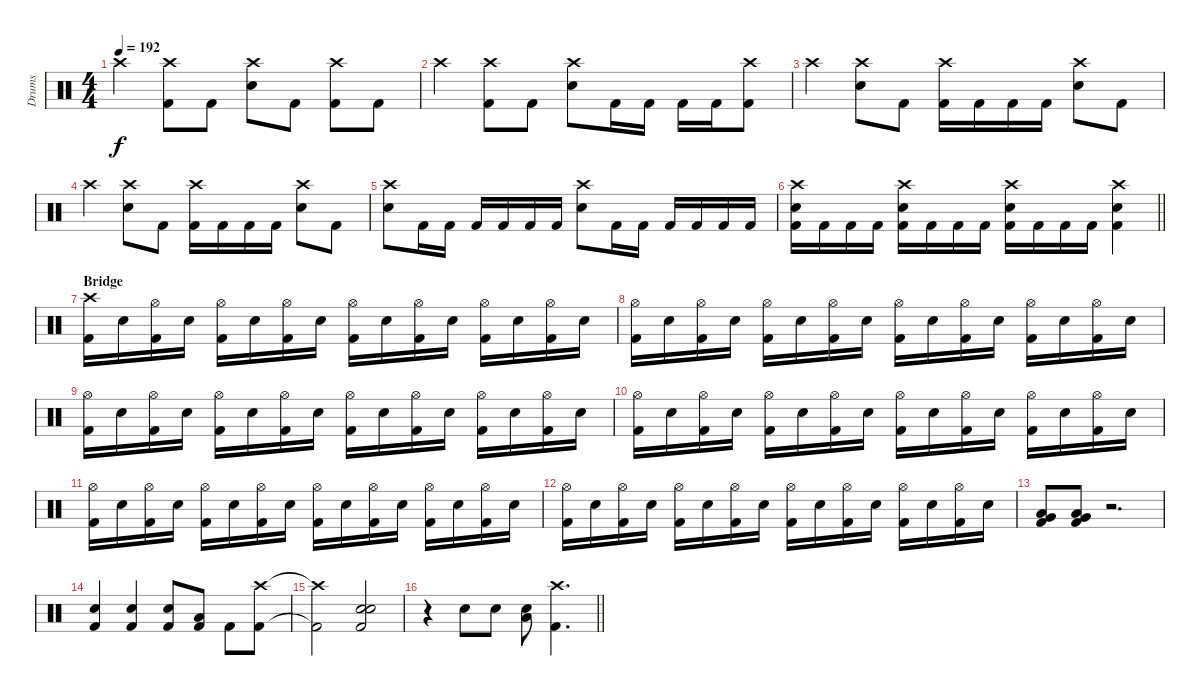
\track ("Drums" "Drums") {instrument percussion}
\staff {score}
\articulation defaults
\ts (4 4)
\tempo 192
\clef neutral
\ks c "Crash high (hit)".4{dy f}
("Crash high (hit)" "Kick (hit) 2").8 "Kick (hit) 2".8 ("Crash high (hit)" "Electric Snare (hit)").8 "Kick (hit) 2".8 ("Crash high (hit)" "Kick (hit) 2").8 "Kick (hit) 2".8 |
"Crash high (hit)".4 ("Crash high (hit)" "Kick (hit) 2").8 "Kick (hit) 2".8 ("Crash high (hit)" "Electric Snare (hit)").8 "Kick (hit) 2".16 "Kick (hit) 2".16 "Kick (hit) 2".16 "Kick (hit) 2".16 ("Crash high (hit)" "Kick (hit) 2").8 |
"Crash high (hit)".4 ("Crash high (hit)" "Electric Snare (hit)").8 "Kick (hit) 2".8 ("Crash high (hit)" "Kick (hit) 2").16 "Kick (hit) 2".16 "Kick (hit) 2".16 "Kick (hit) 2".16 ("Crash high (hit)" "Electric Snare (hit)").8 "Kick (hit) 2".8 |
"Crash high (hit)".4 ("Crash high (hit)" "Electric Snare (hit)").8 "Kick (hit) 2".8 ("Crash high (hit)" "Kick (hit) 2").16 "Kick (hit) 2".16 "Kick (hit) 2".16 "Kick (hit) 2".16 ("Crash high (hit)" "Electric Snare (hit)").8 "Kick (hit) 2".8 |
("Crash high (hit)" "Electric Snare (hit)").8 "Kick (hit) 2".16 "Kick (hit) 2".16 "Kick (hit) 2".16 "Kick (hit) 2".16 "Kick (hit) 2".16 "Kick (hit) 2".16 ("Crash high (hit)" "Electric Snare (hit)").8 "Kick (hit) 2".16 "Kick (hit) 2".16 "Kick (hit) 2".16 "Kick (hit) 2".16 "Kick (hit) 2".16 "Kick (hit) 2".16 |
\barLineRight lightlight
("Crash high (hit)" "Electric Snare (hit)" "Kick (hit) 2").16 "Kick (hit) 2".16 "Kick (hit) 2".16 "Kick (hit) 2".16 ("Crash high (hit)" "Electric Snare (hit)" "Kick (hit) 2").16 "Kick (hit) 2".16 "Kick (hit) 2".16 "Kick (hit) 2".16 ("Crash high (hit)" "Electric Snare (hit)" "Kick (hit) 2").16 "Kick (hit) 2".16 "Kick (hit) 2".16 "Kick (hit) 2".16 ("Crash high (hit)" "Electric Snare (hit)" "Kick (hit) 2").4 |
\section ("" "Bridge")
("Crash high (hit)" "Kick (hit) 2").16 "Electric Snare (hit)".16 ("Hi-Hat (open)" "Kick (hit) 2").16 "Electric Snare (hit)".16 ("Hi-Hat (open)" "Kick (hit) 2").16 "Electric Snare (hit)".16 ("Hi-Hat (open)" "Kick (hit) 2").16 "Electric Snare (hit)".16 ("Hi-Hat (open)" "Kick (hit) 2").16 "Electric Snare (hit)".16 ("Hi-Hat (open)" "Kick (hit) 2").16 "Electric Snare (hit)".16 ("Hi-Hat (open)" "Kick (hit) 2").16 "Electric Snare (hit)".16 ("Hi-Hat (open)" "Kick (hit) 2").16 "Electric Snare (hit)".16 |
("Hi-Hat (open)" "Kick (hit) 2").16 "Electric Snare (hit)".16 ("Hi-Hat (open)" "Kick (hit) 2").16 "Electric Snare (hit)".16 ("Hi-Hat (open)" "Kick (hit) 2").16 "Electric Snare (hit)".16 ("Hi-Hat (open)" "Kick (hit) 2").16 "Electric Snare (hit)".16 ("Hi-Hat (open)" "Kick (hit) 2").16 "Electric Snare (hit)".16 ("Hi-Hat (open)" "Kick (hit) 2").16 "Electric Snare (hit)".16 ("Hi-Hat (open)" "Kick (hit) 2").16 "Electric Snare (hit)".16 ("Hi-Hat (open)" "Kick (hit) 2").16 "Electric Snare (hit)".16 |
("Hi-Hat (open)" "Kick (hit) 2").16 "Electric Snare (hit)".16 ("Hi-Hat (open)" "Kick (hit) 2").16 "Electric Snare (hit)".16 ("Hi-Hat (open)" "Kick (hit) 2").16 "Electric Snare (hit)".16 ("Hi-Hat (open)" "Kick (hit) 2").16 "Electric Snare (hit)".16 ("Hi-Hat (open)" "Kick (hit) 2").16 "Electric Snare (hit)".16 ("Hi-Hat (open)" "Kick (hit) 2").16 "Electric Snare (hit)".16 ("Hi-Hat (open)" "Kick (hit) 2").16 "Electric Snare (hit)".16 ("Hi-Hat (open)" "Kick (hit) 2").16 "Electric Snare (hit)".16 |
("Hi-Hat (open)" "Kick (hit) 2").16 "Electric Snare (hit)".16 ("Hi-Hat (open)" "Kick (hit) 2").16 "Electric Snare (hit)".16 ("Hi-Hat (open)" "Kick (hit) 2").16 "Electric Snare (hit)".16 ("Hi-Hat (open)" "Kick (hit) 2").16 "Electric Snare (hit)".16 ("Hi-Hat (open)" "Kick (hit) 2").16 "Electric Snare (hit)".16 ("Hi-Hat (open)" "Kick (hit) 2").16 "Electric Snare (hit)".16 ("Hi-Hat (open)" "Kick (hit) 2").16 "Electric Snare (hit)".16 ("Hi-Hat (open)" "Kick (hit) 2").16 "Electric Snare (hit)".16 |
("Hi-Hat (open)" "Kick (hit) 2").16 "Electric Snare (hit)".16 ("Hi-Hat (open)" "Kick (hit) 2").16 "Electric Snare (hit)".16 ("Hi-Hat (open)" "Kick (hit) 2").16 "Electric Snare (hit)".16 ("Hi-Hat (open)" "Kick (hit) 2").16 "Electric Snare (hit)".16 ("Hi-Hat (open)" "Kick (hit) 2").16 "Electric Snare (hit)".16 ("Hi-Hat (open)" "Kick (hit) 2").16 "Electric Snare (hit)".16 ("Hi-Hat (open)" "Kick (hit) 2").16 "Electric Snare (hit)".16 ("Hi-Hat (open)" "Kick (hit) 2").16 "Electric Snare (hit)".16 |
("Hi-Hat (open)" "Kick (hit) 2").16 "Electric Snare (hit)".16 ("Hi-Hat (open)" "Kick (hit) 2").16 "Electric Snare (hit)".16 ("Hi-Hat (open)" "Kick (hit) 2").16 "Electric Snare (hit)".16 ("Hi-Hat (open)" "Kick (hit) 2").16 "Electric Snare (hit)".16 ("Hi-Hat (open)" "Kick (hit) 2").16 "Electric Snare (hit)".16 ("Hi-Hat (open)" "Kick (hit) 2").16 "Electric Snare (hit)".16 ("Hi-Hat (open)" "Kick (hit) 2").16 "Electric Snare (hit)".16 ("Hi-Hat (open)" "Kick (hit) 2").16 "Electric Snare (hit)".16 |
("Very Low Tom (hit)" "Low Floor Tom (hit)" "Kick (hit) 2").8 ("Very Low Tom (hit)" "Low Floor Tom (hit)" "Kick (hit) 2").8 r.2{d} |
("Snare (hit) 2" "Kick (hit) 2").4 ("Snare (hit) 2" "Kick (hit) 2").4 ("Snare (hit) 2" "Kick (hit) 2").8 ("Low Tom (hit)" "Kick (hit) 2").8 "Kick (hit) 2".8 ("Crash high (hit)" "Kick (hit) 2").8 |
("Crash high (hit)"{t} "Kick (hit) 2"{t}).2 ("Electric Snare (hit)" "Snare (hit) 2" "Kick (hit) 2").2 |
\barLineRight lightlight
r.4 "Electric Snare (hit)".8 "Electric Snare (hit)".8 ("Electric Snare (hit)" "Low Tom (hit)").8 ("Crash high (hit)" "Kick (hit) 2").4{d}
